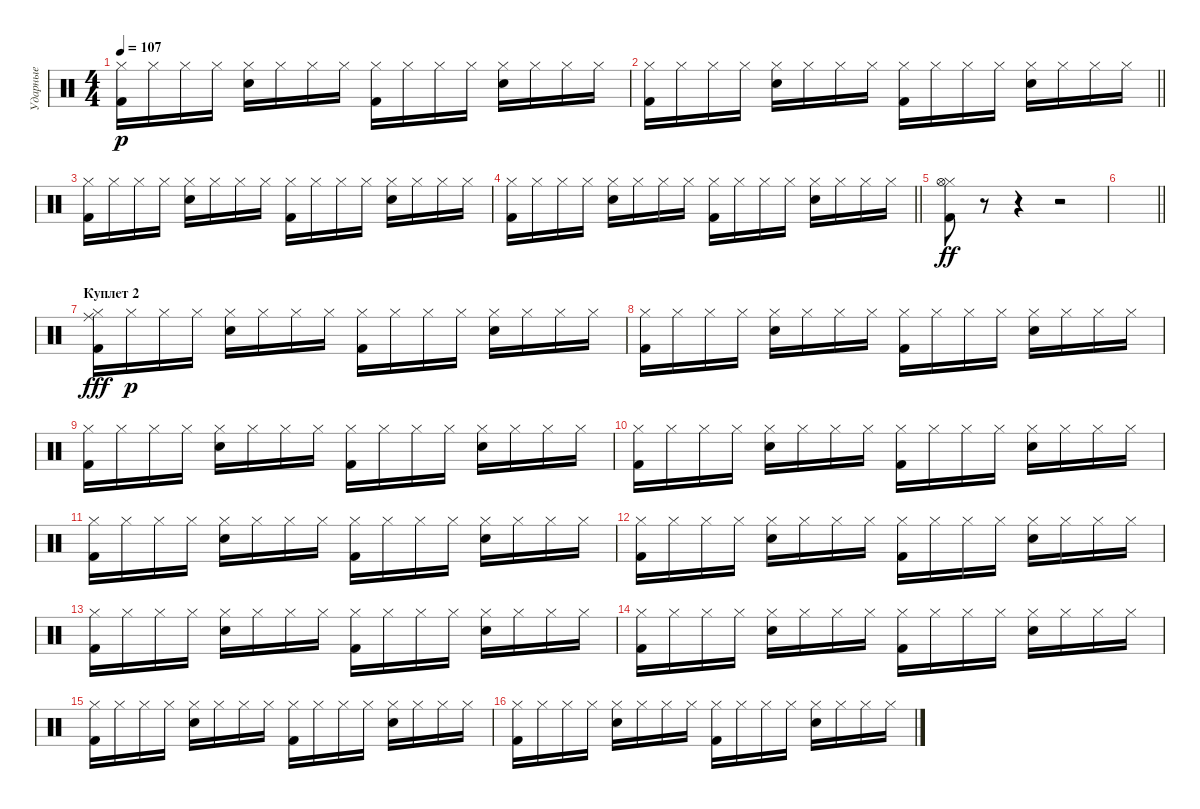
\track ("Ударные" "Ударные") {solo instrument percussion}
\staff {score}
\articulation defaults
\ts (4 4)
\tempo 107
\clef neutral
\ks c
("Kick (hit) 2" "Hi-Hat (closed)").16{dy p} "Hi-Hat (closed)".16 "Hi-Hat (closed)".16 "Hi-Hat (closed)".16 ("Snare (hit) 2" "Hi-Hat (closed)").16 "Hi-Hat (closed)".16 "Hi-Hat (closed)".16 "Hi-Hat (closed)".16 ("Kick (hit) 2" "Hi-Hat (closed)").16 "Hi-Hat (closed)".16 "Hi-Hat (closed)".16 "Hi-Hat (closed)".16 ("Snare (hit) 2" "Hi-Hat (closed)").16 "Hi-Hat (closed)".16 "Hi-Hat (closed)".16 "Hi-Hat (closed)".16 |
\barLineRight lightlight
("Kick (hit) 2" "Hi-Hat (closed)").16 "Hi-Hat (closed)".16 "Hi-Hat (closed)".16 "Hi-Hat (closed)".16 ("Snare (hit) 2" "Hi-Hat (closed)").16 "Hi-Hat (closed)".16 "Hi-Hat (closed)".16 "Hi-Hat (closed)".16 ("Kick (hit) 2" "Hi-Hat (closed)").16 "Hi-Hat (closed)".16 "Hi-Hat (closed)".16 "Hi-Hat (closed)".16 ("Snare (hit) 2" "Hi-Hat (closed)").16 "Hi-Hat (closed)".16 "Hi-Hat (closed)".16 "Hi-Hat (closed)".16 |
("Kick (hit) 2" "Hi-Hat (closed)").16 "Hi-Hat (closed)".16 "Hi-Hat (closed)".16 "Hi-Hat (closed)".16 ("Snare (hit) 2" "Hi-Hat (closed)").16 "Hi-Hat (closed)".16 "Hi-Hat (closed)".16 "Hi-Hat (closed)".16 ("Kick (hit) 2" "Hi-Hat (closed)").16 "Hi-Hat (closed)".16 "Hi-Hat (closed)".16 "Hi-Hat (closed)".16 ("Snare (hit) 2" "Hi-Hat (closed)").16 "Hi-Hat (closed)".16 "Hi-Hat (closed)".16 "Hi-Hat (closed)".16 |
\barLineRight lightlight
("Kick (hit) 2" "Hi-Hat (closed)").16 "Hi-Hat (closed)".16 "Hi-Hat (closed)".16 "Hi-Hat (closed)".16 ("Snare (hit) 2" "Hi-Hat (closed)").16 "Hi-Hat (closed)".16 "Hi-Hat (closed)".16 "Hi-Hat (closed)".16 ("Kick (hit) 2" "Hi-Hat (closed)").16 "Hi-Hat (closed)".16 "Hi-Hat (closed)".16 "Hi-Hat (closed)".16 ("Snare (hit) 2" "Hi-Hat (closed)").16 "Hi-Hat (closed)".16 "Hi-Hat (closed)".16 "Hi-Hat (closed)".16 |
("Kick (hit) 2" "Hi-Hat (closed)" "Hi-Hat (open)").8{dy ff} r.8 r.4 r.2 |
\barLineRight lightlight
|
\section ("" "Куплет 2")
("Kick (hit) 2" "Hi-Hat (closed)" "Ride (middle)").16{dy fff} "Hi-Hat (closed)".16{dy p} "Hi-Hat (closed)".16 "Hi-Hat (closed)".16 ("Snare (hit) 2" "Hi-Hat (closed)").16 "Hi-Hat (closed)".16 "Hi-Hat (closed)".16 "Hi-Hat (closed)".16 ("Kick (hit) 2" "Hi-Hat (closed)").16 "Hi-Hat (closed)".16 "Hi-Hat (closed)".16 "Hi-Hat (closed)".16 ("Snare (hit) 2" "Hi-Hat (closed)").16 "Hi-Hat (closed)".16 "Hi-Hat (closed)".16 "Hi-Hat (closed)".16 |
("Kick (hit) 2" "Hi-Hat (closed)").16 "Hi-Hat (closed)".16 "Hi-Hat (closed)".16 "Hi-Hat (closed)".16 ("Snare (hit) 2" "Hi-Hat (closed)").16 "Hi-Hat (closed)".16 "Hi-Hat (closed)".16 "Hi-Hat (closed)".16 ("Kick (hit) 2" "Hi-Hat (closed)").16 "Hi-Hat (closed)".16 "Hi-Hat (closed)".16 "Hi-Hat (closed)".16 ("Snare (hit) 2" "Hi-Hat (closed)").16 "Hi-Hat (closed)".16 "Hi-Hat (closed)".16 "Hi-Hat (closed)".16 |
("Kick (hit) 2" "Hi-Hat (closed)").16 "Hi-Hat (closed)".16 "Hi-Hat (closed)".16 "Hi-Hat (closed)".16 ("Snare (hit) 2" "Hi-Hat (closed)").16 "Hi-Hat (closed)".16 "Hi-Hat (closed)".16 "Hi-Hat (closed)".16 ("Kick (hit) 2" "Hi-Hat (closed)").16 "Hi-Hat (closed)".16 "Hi-Hat (closed)".16 "Hi-Hat (closed)".16 ("Snare (hit) 2" "Hi-Hat (closed)").16 "Hi-Hat (closed)".16 "Hi-Hat (closed)".16 "Hi-Hat (closed)".16 |
("Kick (hit) 2" "Hi-Hat (closed)").16 "Hi-Hat (closed)".16 "Hi-Hat (closed)".16 "Hi-Hat (closed)".16 ("Snare (hit) 2" "Hi-Hat (closed)").16 "Hi-Hat (closed)".16 "Hi-Hat (closed)".16 "Hi-Hat (closed)".16 ("Kick (hit) 2" "Hi-Hat (closed)").16 "Hi-Hat (closed)".16 "Hi-Hat (closed)".16 "Hi-Hat (closed)".16 ("Snare (hit) 2" "Hi-Hat (closed)").16 "Hi-Hat (closed)".16 "Hi-Hat (closed)".16 "Hi-Hat (closed)".16 |
("Kick (hit) 2" "Hi-Hat (closed)").16 "Hi-Hat (closed)".16 "Hi-Hat (closed)".16 "Hi-Hat (closed)".16 ("Snare (hit) 2" "Hi-Hat (closed)").16 "Hi-Hat (closed)".16 "Hi-Hat (closed)".16 "Hi-Hat (closed)".16 ("Kick (hit) 2" "Hi-Hat (closed)").16 "Hi-Hat (closed)".16 "Hi-Hat (closed)".16 "Hi-Hat (closed)".16 ("Snare (hit) 2" "Hi-Hat (closed)").16 "Hi-Hat (closed)".16 "Hi-Hat (closed)".16 "Hi-Hat (closed)".16 |
("Kick (hit) 2" "Hi-Hat (closed)").16 "Hi-Hat (closed)".16 "Hi-Hat (closed)".16 "Hi-Hat (closed)".16 ("Snare (hit) 2" "Hi-Hat (closed)").16 "Hi-Hat (closed)".16 "Hi-Hat (closed)".16 "Hi-Hat (closed)".16 ("Kick (hit) 2" "Hi-Hat (closed)").16 "Hi-Hat (closed)".16 "Hi-Hat (closed)".16 "Hi-Hat (closed)".16 ("Snare (hit) 2" "Hi-Hat (closed)").16 "Hi-Hat (closed)".16 "Hi-Hat (closed)".16 "Hi-Hat (closed)".16 |
("Kick (hit) 2" "Hi-Hat (closed)").16 "Hi-Hat (closed)".16 "Hi-Hat (closed)".16 "Hi-Hat (closed)".16 ("Snare (hit) 2" "Hi-Hat (closed)").16 "Hi-Hat (closed)".16 "Hi-Hat (closed)".16 "Hi-Hat (closed)".16 ("Kick (hit) 2" "Hi-Hat (closed)").16 "Hi-Hat (closed)".16 "Hi-Hat (closed)".16 "Hi-Hat (closed)".16 ("Snare (hit) 2" "Hi-Hat (closed)").16 "Hi-Hat (closed)".16 "Hi-Hat (closed)".16 "Hi-Hat (closed)".16 |
("Kick (hit) 2" "Hi-Hat (closed)").16 "Hi-Hat (closed)".16 "Hi-Hat (closed)".16 "Hi-Hat (closed)".16 ("Snare (hit) 2" "Hi-Hat (closed)").16 "Hi-Hat (closed)".16 "Hi-Hat (closed)".16 "Hi-Hat (closed)".16 ("Kick (hit) 2" "Hi-Hat (closed)").16 "Hi-Hat (closed)".16 "Hi-Hat (closed)".16 "Hi-Hat (closed)".16 ("Snare (hit) 2" "Hi-Hat (closed)").16 "Hi-Hat (closed)".16 "Hi-Hat (closed)".16 "Hi-Hat (closed)".16 |
("Kick (hit) 2" "Hi-Hat (closed)").16 "Hi-Hat (closed)".16 "Hi-Hat (closed)".16 "Hi-Hat (closed)".16 ("Snare (hit) 2" "Hi-Hat (closed)").16 "Hi-Hat (closed)".16 "Hi-Hat (closed)".16 "Hi-Hat (closed)".16 ("Kick (hit) 2" "Hi-Hat (closed)").16 "Hi-Hat (closed)".16 "Hi-Hat (closed)".16 "Hi-Hat (closed)".16 ("Snare (hit) 2" "Hi-Hat (closed)").16 "Hi-Hat (closed)".16 "Hi-Hat (closed)".16 "Hi-Hat (closed)".16 |
("Kick (hit) 2" "Hi-Hat (closed)").16 "Hi-Hat (closed)".16 "Hi-Hat (closed)".16 "Hi-Hat (closed)".16 ("Snare (hit) 2" "Hi-Hat (closed)").16 "Hi-Hat (closed)".16 "Hi-Hat (closed)".16 "Hi-Hat (closed)".16 ("Kick (hit) 2" "Hi-Hat (closed)").16 "Hi-Hat (closed)".16 "Hi-Hat (closed)".16 "Hi-Hat (closed)".16 ("Snare (hit) 2" "Hi-Hat (closed)").16 "Hi-Hat (closed)".16 "Hi-Hat (closed)".16 "Hi-Hat (closed)".16
